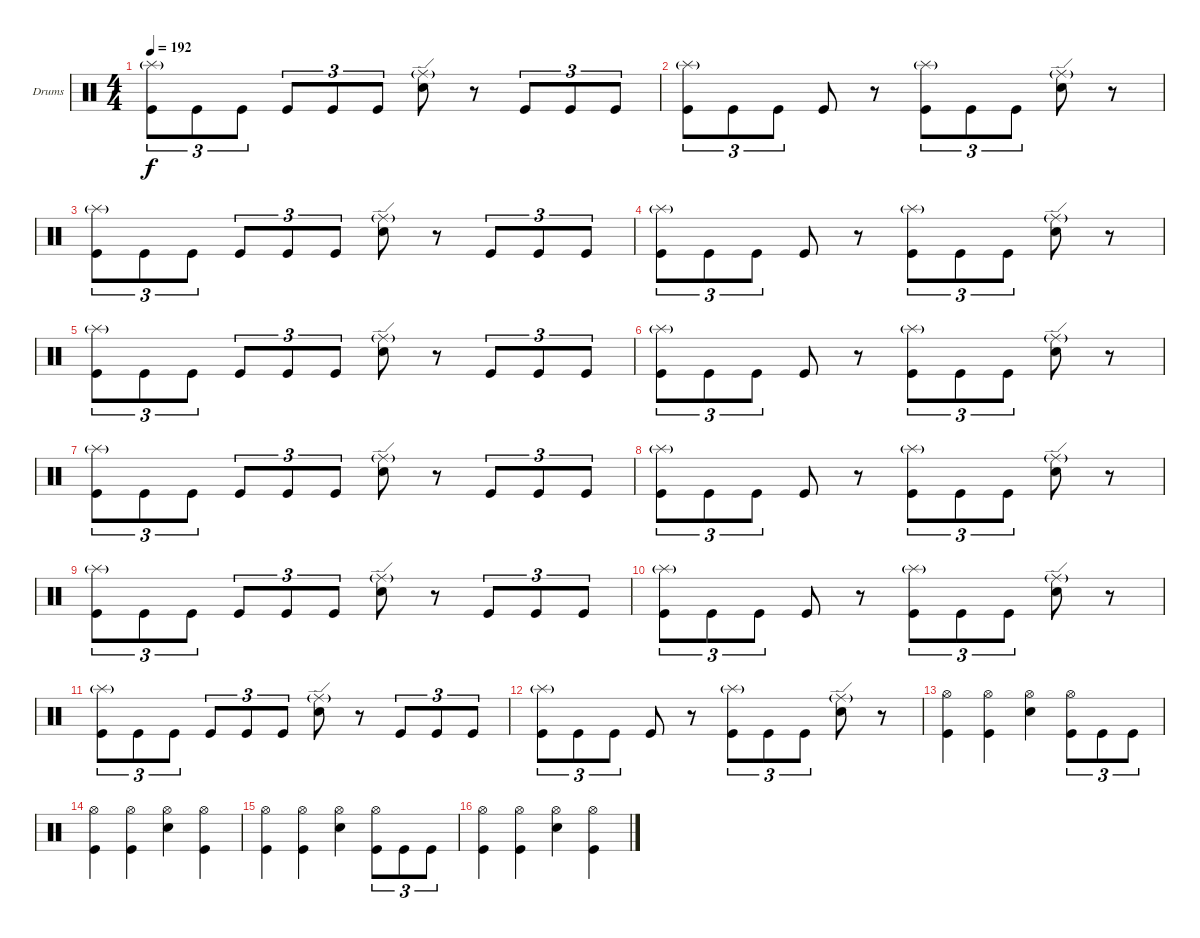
\defaultSystemsLayout 4
\bracketExtendMode groupsimilarinstruments
\firstSystemTrackNameOrientation horizontal
\otherSystemsTrackNameOrientation horizontal
\track ("Drumkit" "Drums") {instrument percussion}
\staff {score}
\articulation defaults
\ts (4 4)
\tempo 192
\clef neutral
\ks c
("Kick (hit)" "Splash (hit)"{g}).8{tu (3 2) dy f} "Kick (hit)".8{tu (3 2)} "Kick (hit)".8{tu (3 2)} "Kick (hit)".8{tu (3 2)} "Kick (hit)".8{tu (3 2)} "Kick (hit)".8{tu (3 2)} ("Snare (hit) 2" "Ride (edge)"{g}).8 r.8 "Kick (hit)".8{tu (3 2)} "Kick (hit)".8{tu (3 2)} "Kick (hit)".8{tu (3 2)} |
("Splash (hit)"{g} "Kick (hit)").8{tu (3 2)} "Kick (hit)".8{tu (3 2)} "Kick (hit)".8{tu (3 2)} "Kick (hit)".8 r.8 ("Kick (hit)" "Splash (hit)"{g}).8{tu (3 2)} "Kick (hit)".8{tu (3 2)} "Kick (hit)".8{tu (3 2)} ("Snare (hit) 2" "Ride (edge)"{g}).8 r.8 |
("Kick (hit)" "Splash (hit)"{g}).8{tu (3 2)} "Kick (hit)".8{tu (3 2)} "Kick (hit)".8{tu (3 2)} "Kick (hit)".8{tu (3 2)} "Kick (hit)".8{tu (3 2)} "Kick (hit)".8{tu (3 2)} ("Snare (hit) 2" "Ride (edge)"{g}).8 r.8 "Kick (hit)".8{tu (3 2)} "Kick (hit)".8{tu (3 2)} "Kick (hit)".8{tu (3 2)} |
("Splash (hit)"{g} "Kick (hit)").8{tu (3 2)} "Kick (hit)".8{tu (3 2)} "Kick (hit)".8{tu (3 2)} "Kick (hit)".8 r.8 ("Kick (hit)" "Splash (hit)"{g}).8{tu (3 2)} "Kick (hit)".8{tu (3 2)} "Kick (hit)".8{tu (3 2)} ("Snare (hit) 2" "Ride (edge)"{g}).8 r.8 |
("Kick (hit)" "Splash (hit)"{g}).8{tu (3 2)} "Kick (hit)".8{tu (3 2)} "Kick (hit)".8{tu (3 2)} "Kick (hit)".8{tu (3 2)} "Kick (hit)".8{tu (3 2)} "Kick (hit)".8{tu (3 2)} ("Snare (hit) 2" "Ride (edge)"{g}).8 r.8 "Kick (hit)".8{tu (3 2)} "Kick (hit)".8{tu (3 2)} "Kick (hit)".8{tu (3 2)} |
("Splash (hit)"{g} "Kick (hit)").8{tu (3 2)} "Kick (hit)".8{tu (3 2)} "Kick (hit)".8{tu (3 2)} "Kick (hit)".8 r.8 ("Kick (hit)" "Splash (hit)"{g}).8{tu (3 2)} "Kick (hit)".8{tu (3 2)} "Kick (hit)".8{tu (3 2)} ("Snare (hit) 2" "Ride (edge)"{g}).8 r.8 |
("Kick (hit)" "Splash (hit)"{g}).8{tu (3 2)} "Kick (hit)".8{tu (3 2)} "Kick (hit)".8{tu (3 2)} "Kick (hit)".8{tu (3 2)} "Kick (hit)".8{tu (3 2)} "Kick (hit)".8{tu (3 2)} ("Snare (hit) 2" "Ride (edge)"{g}).8 r.8 "Kick (hit)".8{tu (3 2)} "Kick (hit)".8{tu (3 2)} "Kick (hit)".8{tu (3 2)} |
("Splash (hit)"{g} "Kick (hit)").8{tu (3 2)} "Kick (hit)".8{tu (3 2)} "Kick (hit)".8{tu (3 2)} "Kick (hit)".8 r.8 ("Kick (hit)" "Splash (hit)"{g}).8{tu (3 2)} "Kick (hit)".8{tu (3 2)} "Kick (hit)".8{tu (3 2)} ("Snare (hit) 2" "Ride (edge)"{g}).8 r.8 |
("Kick (hit)" "Splash (hit)"{g}).8{tu (3 2)} "Kick (hit)".8{tu (3 2)} "Kick (hit)".8{tu (3 2)} "Kick (hit)".8{tu (3 2)} "Kick (hit)".8{tu (3 2)} "Kick (hit)".8{tu (3 2)} ("Snare (hit) 2" "Ride (edge)"{g}).8 r.8 "Kick (hit)".8{tu (3 2)} "Kick (hit)".8{tu (3 2)} "Kick (hit)".8{tu (3 2)} |
("Splash (hit)"{g} "Kick (hit)").8{tu (3 2)} "Kick (hit)".8{tu (3 2)} "Kick (hit)".8{tu (3 2)} "Kick (hit)".8 r.8 ("Kick (hit)" "Splash (hit)"{g}).8{tu (3 2)} "Kick (hit)".8{tu (3 2)} "Kick (hit)".8{tu (3 2)} ("Snare (hit) 2" "Ride (edge)"{g}).8 r.8 |
("Kick (hit)" "Splash (hit)"{g}).8{tu (3 2)} "Kick (hit)".8{tu (3 2)} "Kick (hit)".8{tu (3 2)} "Kick (hit)".8{tu (3 2)} "Kick (hit)".8{tu (3 2)} "Kick (hit)".8{tu (3 2)} ("Snare (hit) 2" "Ride (edge)"{g}).8 r.8 "Kick (hit)".8{tu (3 2)} "Kick (hit)".8{tu (3 2)} "Kick (hit)".8{tu (3 2)} |
("Splash (hit)"{g} "Kick (hit)").8{tu (3 2)} "Kick (hit)".8{tu (3 2)} "Kick (hit)".8{tu (3 2)} "Kick (hit)".8 r.8 ("Kick (hit)" "Splash (hit)"{g}).8{tu (3 2)} "Kick (hit)".8{tu (3 2)} "Kick (hit)".8{tu (3 2)} ("Snare (hit) 2" "Ride (edge)"{g}).8 r.8 |
("Kick (hit)" "Hi-Hat (open)").4 ("Kick (hit)" "Hi-Hat (open)").4 ("Snare (hit) 2" "Hi-Hat (open)").4 ("Hi-Hat (open)" "Kick (hit)").8{tu (3 2)} "Kick (hit)".8{tu (3 2)} "Kick (hit)".8{tu (3 2)} |
("Kick (hit)" "Hi-Hat (open)").4 ("Kick (hit)" "Hi-Hat (open)").4 ("Snare (hit) 2" "Hi-Hat (open)").4 ("Kick (hit)" "Hi-Hat (open)").4 |
("Kick (hit)" "Hi-Hat (open)").4 ("Kick (hit)" "Hi-Hat (open)").4 ("Snare (hit) 2" "Hi-Hat (open)").4 ("Hi-Hat (open)" "Kick (hit)").8{tu (3 2)} "Kick (hit)".8{tu (3 2)} "Kick (hit)".8{tu (3 2)} |
("Kick (hit)" "Hi-Hat (open)").4 ("Kick (hit)" "Hi-Hat (open)").4 ("Snare (hit) 2" "Hi-Hat (open)").4 ("Kick (hit)" "Hi-Hat (open)").4
